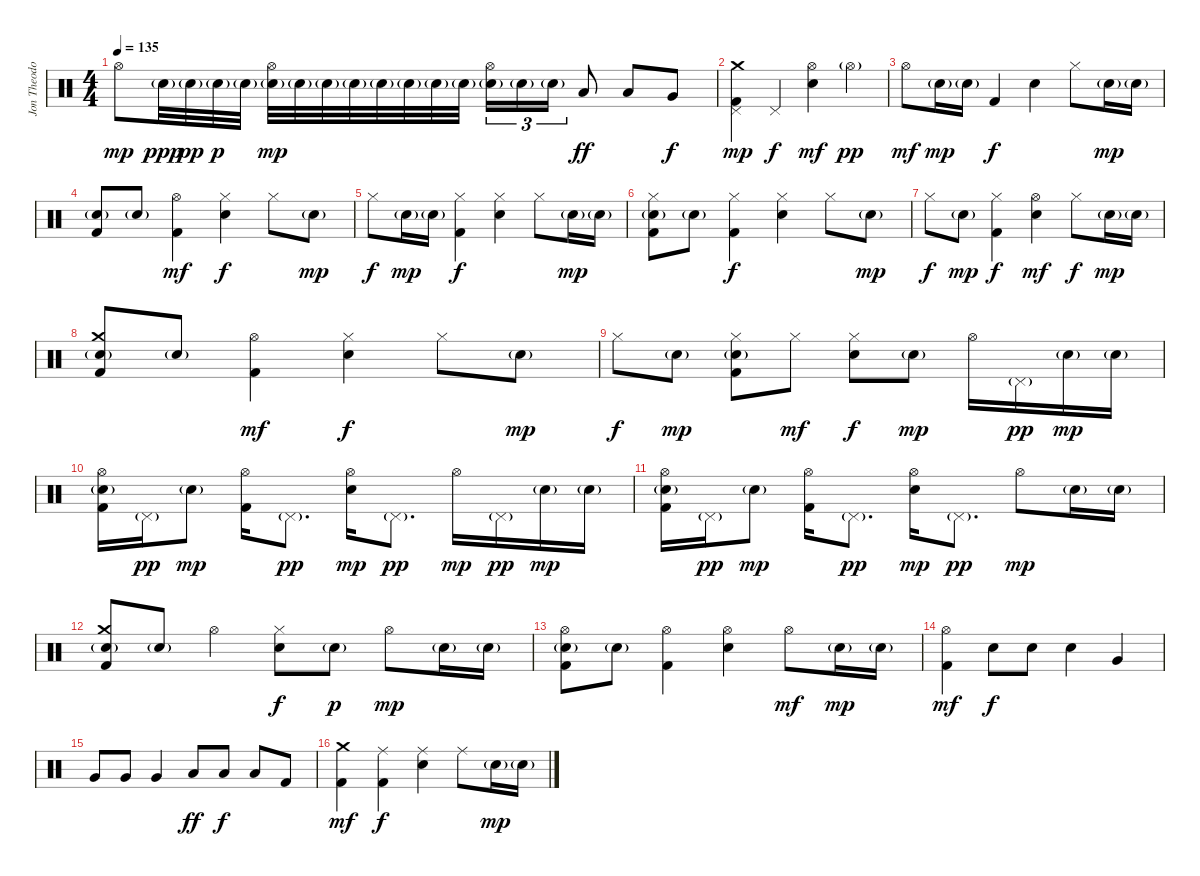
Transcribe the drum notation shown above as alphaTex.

\track ("Jon Theodore - Drums" "Jon Theodo") {instrument percussion}
\staff {score}
\articulation defaults
\ts (4 4)
\tempo 135
\clef neutral
\ks c "Hi-Hat (open)".8{dy mp} "Electric Snare (hit)"{g}.32{dy ppp} "Electric Snare (hit)"{g}.32{dy pp} "Electric Snare (hit)"{g}.32{dy p} "Electric Snare (hit)"{g}.32
("Electric Snare (hit)"{g} "Hi-Hat (open)").32{dy mp} "Electric Snare (hit)"{g}.32 "Electric Snare (hit)"{g}.32 "Electric Snare (hit)"{g}.32 "Electric Snare (hit)"{g}.32 "Electric Snare (hit)"{g}.32 "Electric Snare (hit)"{g}.32 "Electric Snare (hit)"{g}.32 ("Electric Snare (hit)"{g} "Hi-Hat (open)").16{tu (3 2)} "Electric Snare (hit)"{g}.16{tu (3 2)} "Electric Snare (hit)"{g}.16{tu (3 2)} "Low Tom (hit)".8{dy ff} "Low Tom (hit)".8 "Very Low Tom (hit)".8{dy f} |
("Crash medium (hit)" "Pedal Hi-Hat (hit)" "Kick (hit) 2").4{dy mp} "Pedal Hi-Hat (hit)".4{dy f} ("Hi-Hat (open)" "Electric Snare (hit)").4{dy mf} "Hi-Hat (open)"{g}.4{dy pp} |
"Hi-Hat (open)".8{dy mf} "Electric Snare (hit)"{g}.16{dy mp} "Electric Snare (hit)"{g}.16 "Kick (hit) 2".4{dy f} "Electric Snare (hit)".4 "Hi-Hat (closed)".8 "Electric Snare (hit)"{g}.16{dy mp} "Electric Snare (hit)"{g}.16 |
("Electric Snare (hit)"{g} "Kick (hit) 2").8 "Electric Snare (hit)"{g}.8 ("Hi-Hat (open)" "Kick (hit) 2").4{dy mf} ("Hi-Hat (closed)" "Electric Snare (hit)").4{dy f} "Hi-Hat (closed)".8 "Electric Snare (hit)"{g}.8{dy mp} |
"Hi-Hat (closed)".8{dy f} "Electric Snare (hit)"{g}.16{dy mp} "Electric Snare (hit)"{g}.16 ("Hi-Hat (closed)" "Kick (hit) 2").4{dy f} ("Hi-Hat (closed)" "Electric Snare (hit)").4 "Hi-Hat (closed)".8 "Electric Snare (hit)"{g}.16{dy mp} "Electric Snare (hit)"{g}.16 |
("Hi-Hat (closed)" "Electric Snare (hit)"{g} "Kick (hit) 2").8 "Electric Snare (hit)"{g}.8 ("Hi-Hat (closed)" "Kick (hit) 2").4{dy f} ("Hi-Hat (closed)" "Electric Snare (hit)").4 "Hi-Hat (closed)".8 "Electric Snare (hit)"{g}.8{dy mp} |
"Hi-Hat (closed)".8{dy f} "Electric Snare (hit)"{g}.8{dy mp} ("Hi-Hat (closed)" "Kick (hit) 2").4{dy f} ("Hi-Hat (open)" "Electric Snare (hit)").4{dy mf} "Hi-Hat (closed)".8{dy f} "Electric Snare (hit)"{g}.16{dy mp} "Electric Snare (hit)"{g}.16 |
("Crash medium (hit)" "Electric Snare (hit)"{g} "Kick (hit) 2").8 "Electric Snare (hit)"{g}.8 ("Hi-Hat (open)" "Kick (hit) 2").4{dy mf} ("Hi-Hat (closed)" "Electric Snare (hit)").4{dy f} "Hi-Hat (closed)".8 "Electric Snare (hit)"{g}.8{dy mp} |
"Hi-Hat (closed)".8{dy f} "Electric Snare (hit)"{g}.8{dy mp} ("Hi-Hat (closed)" "Electric Snare (hit)"{g} "Kick (hit) 2").8 "Hi-Hat (closed)".8{dy mf} ("Hi-Hat (closed)" "Electric Snare (hit)").8{dy f} "Electric Snare (hit)"{g}.8{dy mp} "Hi-Hat (open)".16 "Pedal Hi-Hat (hit)"{g}.16{dy pp} "Electric Snare (hit)"{g}.16{dy mp} "Electric Snare (hit)"{g}.16 |
("Hi-Hat (open)" "Electric Snare (hit)"{g} "Kick (hit) 2").16 "Pedal Hi-Hat (hit)"{g}.16{dy pp} "Electric Snare (hit)"{g}.8{dy mp} ("Hi-Hat (open)" "Kick (hit) 2").16 "Pedal Hi-Hat (hit)"{g}.8{d dy pp} ("Hi-Hat (open)" "Electric Snare (hit)").16{dy mp} "Pedal Hi-Hat (hit)"{g}.8{d dy pp} "Hi-Hat (open)".16{dy mp} "Pedal Hi-Hat (hit)"{g}.16{dy pp} "Electric Snare (hit)"{g}.16{dy mp} "Electric Snare (hit)"{g}.16 |
("Hi-Hat (open)" "Electric Snare (hit)"{g} "Kick (hit) 2").16 "Pedal Hi-Hat (hit)"{g}.16{dy pp} "Electric Snare (hit)"{g}.8{dy mp} ("Hi-Hat (open)" "Kick (hit) 2").16 "Pedal Hi-Hat (hit)"{g}.8{d dy pp} ("Hi-Hat (open)" "Electric Snare (hit)").16{dy mp} "Pedal Hi-Hat (hit)"{g}.8{d dy pp} "Hi-Hat (open)".8{dy mp} "Electric Snare (hit)"{g}.16 "Electric Snare (hit)"{g}.16 |
("Crash medium (hit)" "Electric Snare (hit)"{g} "Kick (hit) 2").8 "Electric Snare (hit)"{g}.8 "Hi-Hat (open)".4 ("Hi-Hat (closed)" "Electric Snare (hit)").8{dy f} "Electric Snare (hit)"{g}.8{dy p} "Hi-Hat (open)".8{dy mp} "Electric Snare (hit)"{g}.16 "Electric Snare (hit)"{g}.16 |
("Hi-Hat (open)" "Electric Snare (hit)"{g} "Kick (hit) 2").8 "Electric Snare (hit)"{g}.8 ("Hi-Hat (open)" "Kick (hit) 2").4 ("Hi-Hat (open)" "Electric Snare (hit)").4 "Hi-Hat (open)".8{dy mf} "Electric Snare (hit)"{g}.16{dy mp} "Electric Snare (hit)"{g}.16 |
("Hi-Hat (open)" "Kick (hit) 2").4{dy mf} "Electric Snare (hit)".8{dy f} "Electric Snare (hit)".8 "Electric Snare (hit)".4 "Very Low Tom (hit)".4 |
"Very Low Tom (hit)".8 "Very Low Tom (hit)".8 "Very Low Tom (hit)".4 "Low Floor Tom (hit)".8{dy ff} "Low Floor Tom (hit)".8{dy f} "Low Floor Tom (hit)".8 "Kick (hit) 2".8 |
("Crash medium (hit)" "Kick (hit) 2").4{dy mf} ("Ride (middle)" "Kick (hit) 2").4{dy f} ("Ride (middle)" "Electric Snare (hit)").4 "Ride (middle)".8 "Electric Snare (hit)"{g}.16{dy mp} "Electric Snare (hit)"{g}.16
